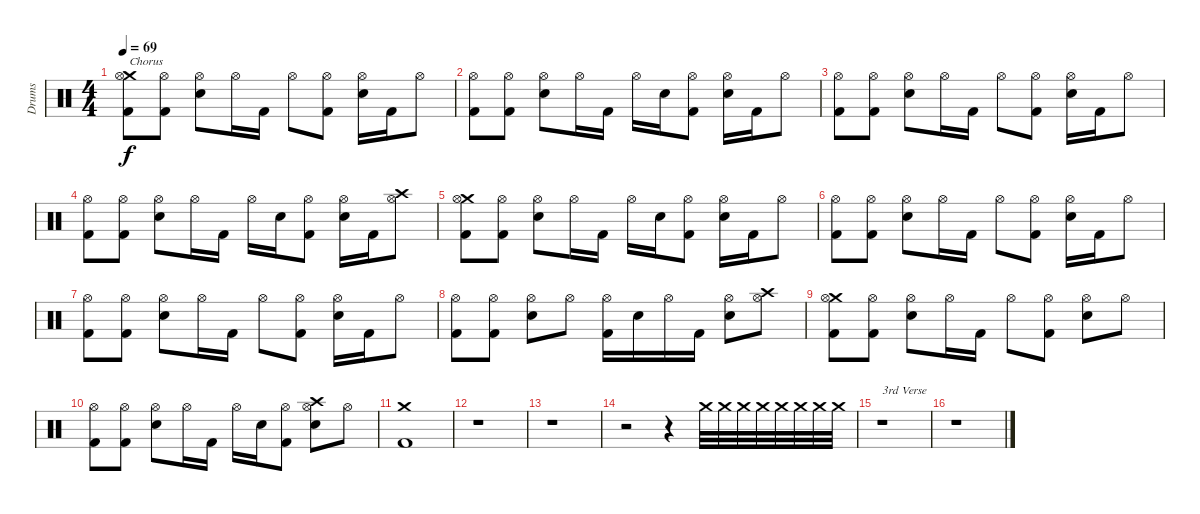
\track ("Drums" "Drums") {instrument percussion}
\staff {score}
\articulation defaults
\ts (4 4)
\tempo 69
\clef neutral
\ks c
("Crash medium (hit)" "Hi-Hat (open)" "Kick (hit) 2").8{txt "Chorus" dy f} ("Hi-Hat (open)" "Kick (hit) 2").8 ("Hi-Hat (open)" "Snare (hit) 2").8 "Hi-Hat (open)".16 "Kick (hit) 2".16 "Hi-Hat (open)".8 ("Hi-Hat (open)" "Kick (hit) 2").8 ("Hi-Hat (open)" "Snare (hit) 2").16 "Kick (hit) 2".16 "Hi-Hat (open)".8 |
("Hi-Hat (open)" "Kick (hit) 2").8 ("Hi-Hat (open)" "Kick (hit) 2").8 ("Hi-Hat (open)" "Snare (hit) 2").8 "Hi-Hat (open)".16 "Kick (hit) 2".16 "Hi-Hat (open)".16 "Snare (hit) 2".16 ("Hi-Hat (open)" "Kick (hit) 2").8 ("Hi-Hat (open)" "Snare (hit) 2").16 "Kick (hit) 2".16 "Hi-Hat (open)".8 |
("Hi-Hat (open)" "Kick (hit) 2").8 ("Hi-Hat (open)" "Kick (hit) 2").8 ("Hi-Hat (open)" "Snare (hit) 2").8 "Hi-Hat (open)".16 "Kick (hit) 2".16 "Hi-Hat (open)".8 ("Hi-Hat (open)" "Kick (hit) 2").8 ("Hi-Hat (open)" "Snare (hit) 2").16 "Kick (hit) 2".16 "Hi-Hat (open)".8 |
("Hi-Hat (open)" "Kick (hit) 2").8 ("Hi-Hat (open)" "Kick (hit) 2").8 ("Hi-Hat (open)" "Snare (hit) 2").8 "Hi-Hat (open)".16 "Kick (hit) 2".16 "Hi-Hat (open)".16 "Snare (hit) 2".16 ("Hi-Hat (open)" "Kick (hit) 2").8 ("Hi-Hat (open)" "Snare (hit) 2").16 "Kick (hit) 2".16 ("Crash high (hit)" "Hi-Hat (open)").8 |
("Crash medium (hit)" "Hi-Hat (open)" "Kick (hit) 2").8 ("Hi-Hat (open)" "Kick (hit) 2").8 ("Hi-Hat (open)" "Snare (hit) 2").8 "Hi-Hat (open)".16 "Kick (hit) 2".16 "Hi-Hat (open)".16 "Snare (hit) 2".16 ("Hi-Hat (open)" "Kick (hit) 2").8 ("Hi-Hat (open)" "Snare (hit) 2").16 "Kick (hit) 2".16 "Hi-Hat (open)".8 |
("Hi-Hat (open)" "Kick (hit) 2").8 ("Hi-Hat (open)" "Kick (hit) 2").8 ("Hi-Hat (open)" "Snare (hit) 2").8 "Hi-Hat (open)".16 "Kick (hit) 2".16 "Hi-Hat (open)".8 ("Hi-Hat (open)" "Kick (hit) 2").8 ("Hi-Hat (open)" "Snare (hit) 2").16 "Kick (hit) 2".16 "Hi-Hat (open)".8 |
("Hi-Hat (open)" "Kick (hit) 2").8 ("Hi-Hat (open)" "Kick (hit) 2").8 ("Hi-Hat (open)" "Snare (hit) 2").8 "Hi-Hat (open)".16 "Kick (hit) 2".16 "Hi-Hat (open)".8 ("Hi-Hat (open)" "Kick (hit) 2").8 ("Hi-Hat (open)" "Snare (hit) 2").16 "Kick (hit) 2".16 "Hi-Hat (open)".8 |
("Hi-Hat (open)" "Kick (hit) 2").8 ("Hi-Hat (open)" "Kick (hit) 2").8 ("Hi-Hat (open)" "Snare (hit) 2").8 "Hi-Hat (open)".8 ("Hi-Hat (open)" "Kick (hit) 2").16 "Snare (hit) 2".16 "Hi-Hat (open)".16 "Kick (hit) 2".16 ("Hi-Hat (open)" "Snare (hit) 2").8 ("Crash high (hit)" "Hi-Hat (open)").8 |
("Crash medium (hit)" "Hi-Hat (open)" "Kick (hit) 2").8 ("Hi-Hat (open)" "Kick (hit) 2").8 ("Hi-Hat (open)" "Snare (hit) 2").8 "Hi-Hat (open)".16 "Kick (hit) 2".16 "Hi-Hat (open)".8 ("Hi-Hat (open)" "Kick (hit) 2").8 ("Hi-Hat (open)" "Snare (hit) 2").8 "Hi-Hat (open)".8 |
("Hi-Hat (open)" "Kick (hit) 2").8 ("Hi-Hat (open)" "Kick (hit) 2").8 ("Hi-Hat (open)" "Snare (hit) 2").8 "Hi-Hat (open)".16 "Kick (hit) 2".16 "Hi-Hat (open)".16 "Snare (hit) 2".16 ("Hi-Hat (open)" "Kick (hit) 2").8 ("Crash high (hit)" "Hi-Hat (open)" "Snare (hit) 2").8 "Hi-Hat (open)".8 |
("Crash medium (hit)" "Kick (hit) 2").1 |
r.1 |
r.1 |
r.2{volume 0} r.4 "Crash medium (hit)".32{volume 16} "Crash medium (hit)".32 "Crash medium (hit)".32 "Crash medium (hit)".32 "Crash medium (hit)".32 "Crash medium (hit)".32 "Crash medium (hit)".32 "Crash medium (hit)".32 |
r.1{txt "3rd Verse"} |
r.1
